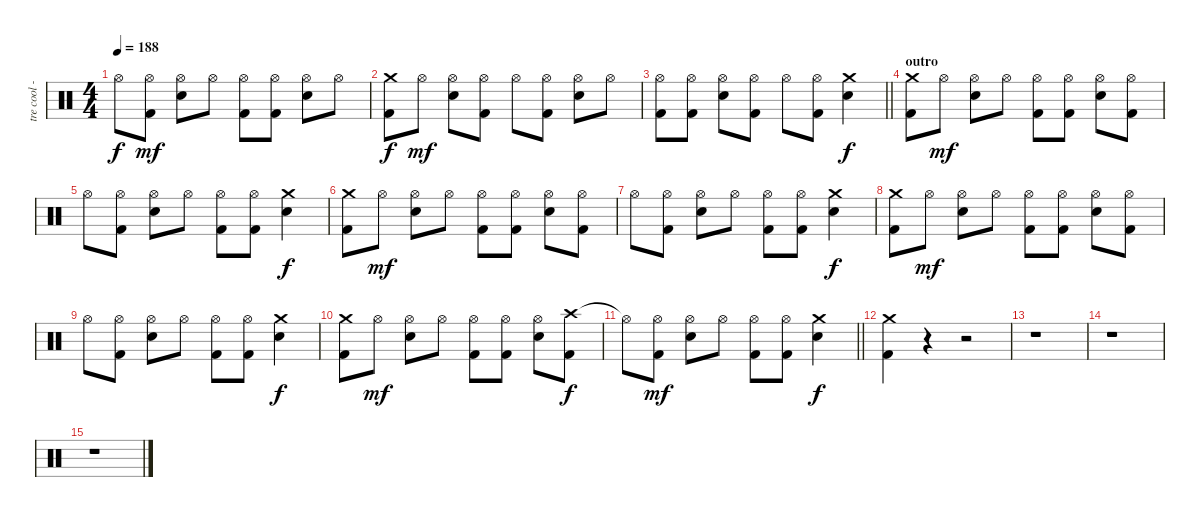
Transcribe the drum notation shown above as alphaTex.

\track ("tre cool - drums" "tre cool -") {instrument percussion}
\staff {score}
\articulation defaults
\ts (4 4)
\tempo 188
\clef neutral
\ks c "Hi-Hat (open)"{t}.8{dy f}
("Hi-Hat (open)" "Kick (hit) 2").8{dy mf} ("Hi-Hat (open)" "Electric Snare (hit)").8 "Hi-Hat (open)".8 ("Hi-Hat (open)" "Kick (hit) 2").8 ("Hi-Hat (open)" "Kick (hit) 2").8 ("Hi-Hat (open)" "Electric Snare (hit)").8 "Hi-Hat (open)".8 |
("Crash medium (hit)" "Kick (hit) 2").8{dy f} "Hi-Hat (open)".8{dy mf} ("Hi-Hat (open)" "Electric Snare (hit)").8 ("Hi-Hat (open)" "Kick (hit) 2").8 "Hi-Hat (open)".8 ("Hi-Hat (open)" "Kick (hit) 2").8 ("Hi-Hat (open)" "Electric Snare (hit)").8 "Hi-Hat (open)".8 |
\barLineRight lightlight
("Hi-Hat (open)" "Kick (hit) 2").8 ("Hi-Hat (open)" "Kick (hit) 2").8 ("Hi-Hat (open)" "Electric Snare (hit)").8 ("Hi-Hat (open)" "Kick (hit) 2").8 "Hi-Hat (open)".8 ("Hi-Hat (open)" "Kick (hit) 2").8 ("Crash medium (hit)" "Electric Snare (hit)").4{dy f} |
\section ("" "outro")
("Crash medium (hit)" "Kick (hit) 2").8 "Hi-Hat (open)".8{dy mf} ("Hi-Hat (open)" "Electric Snare (hit)").8 "Hi-Hat (open)".8 ("Hi-Hat (open)" "Kick (hit) 2").8 ("Hi-Hat (open)" "Kick (hit) 2").8 ("Hi-Hat (open)" "Electric Snare (hit)").8 ("Hi-Hat (open)" "Kick (hit) 2").8 |
"Hi-Hat (open)".8 ("Hi-Hat (open)" "Kick (hit) 2").8 ("Hi-Hat (open)" "Electric Snare (hit)").8 "Hi-Hat (open)".8 ("Hi-Hat (open)" "Kick (hit) 2").8 ("Hi-Hat (open)" "Kick (hit) 2").8 ("Crash medium (hit)" "Electric Snare (hit)").4{dy f} |
("Crash medium (hit)" "Kick (hit) 2").8 "Hi-Hat (open)".8{dy mf} ("Hi-Hat (open)" "Electric Snare (hit)").8 "Hi-Hat (open)".8 ("Hi-Hat (open)" "Kick (hit) 2").8 ("Hi-Hat (open)" "Kick (hit) 2").8 ("Hi-Hat (open)" "Electric Snare (hit)").8 ("Hi-Hat (open)" "Kick (hit) 2").8 |
"Hi-Hat (open)".8 ("Hi-Hat (open)" "Kick (hit) 2").8 ("Hi-Hat (open)" "Electric Snare (hit)").8 "Hi-Hat (open)".8 ("Hi-Hat (open)" "Kick (hit) 2").8 ("Hi-Hat (open)" "Kick (hit) 2").8 ("Crash medium (hit)" "Electric Snare (hit)").4{dy f} |
("Crash medium (hit)" "Kick (hit) 2").8 "Hi-Hat (open)".8{dy mf} ("Hi-Hat (open)" "Electric Snare (hit)").8 "Hi-Hat (open)".8 ("Hi-Hat (open)" "Kick (hit) 2").8 ("Hi-Hat (open)" "Kick (hit) 2").8 ("Hi-Hat (open)" "Electric Snare (hit)").8 ("Hi-Hat (open)" "Kick (hit) 2").8 |
"Hi-Hat (open)".8 ("Hi-Hat (open)" "Kick (hit) 2").8 ("Hi-Hat (open)" "Electric Snare (hit)").8 "Hi-Hat (open)".8 ("Hi-Hat (open)" "Kick (hit) 2").8 ("Hi-Hat (open)" "Kick (hit) 2").8 ("Crash medium (hit)" "Electric Snare (hit)").4{dy f} |
("Crash medium (hit)" "Kick (hit) 2").8 "Hi-Hat (open)".8{dy mf} ("Hi-Hat (open)" "Electric Snare (hit)").8 "Hi-Hat (open)".8 ("Hi-Hat (open)" "Kick (hit) 2").8 ("Hi-Hat (open)" "Kick (hit) 2").8 ("Hi-Hat (open)" "Electric Snare (hit)").8 ("Crash high (hit)" "Kick (hit) 2").8{dy f} |
\barLineRight lightlight "Hi-Hat (open)"{t}.8
("Hi-Hat (open)" "Kick (hit) 2").8{dy mf} ("Hi-Hat (open)" "Electric Snare (hit)").8 "Hi-Hat (open)".8 ("Hi-Hat (open)" "Kick (hit) 2").8 ("Hi-Hat (open)" "Kick (hit) 2").8 ("Crash medium (hit)" "Electric Snare (hit)").4{dy f} |
("Crash medium (hit)" "Kick (hit) 2").4 r.4 r.2 |
r.1 |
r.1 |
r.1
